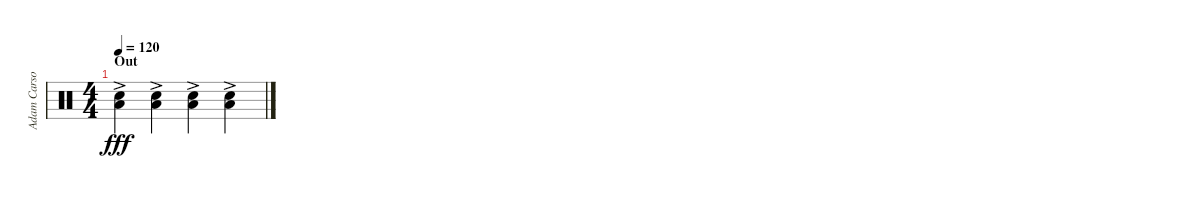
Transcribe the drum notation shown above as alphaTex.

\track ("Adam Carson (Percussion)" "Adam Carso") {instrument percussion}
\staff {score}
\articulation defaults
\ts (4 4)
\section ("" "Out")
\tempo 120
\clef neutral
\ks c
("Low Floor Tom (hit)" "Hand Clap (hit)"{ac}).4{dy fff} ("Low Floor Tom (hit)" "Hand Clap (hit)"{ac}).4 ("Low Floor Tom (hit)" "Hand Clap (hit)"{ac}).4 ("Low Floor Tom (hit)" "Hand Clap (hit)"{ac}).4
